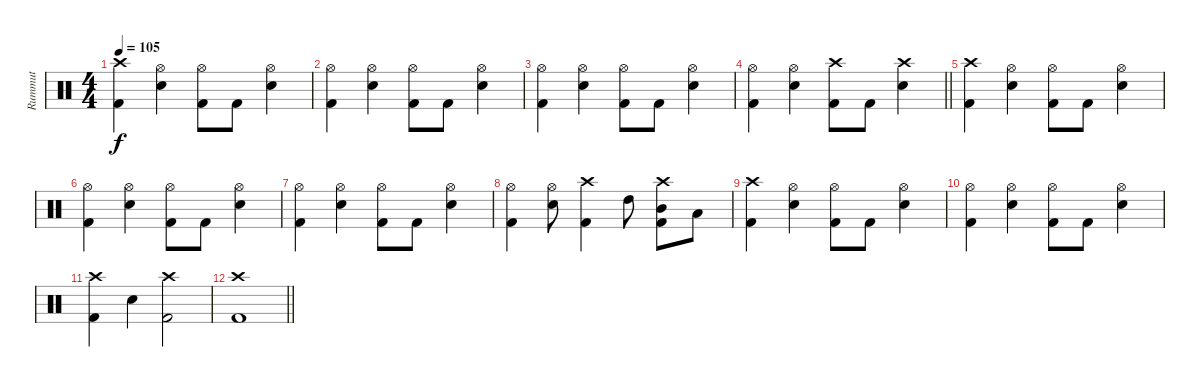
\track ("Rummut" "Rummut") {instrument percussion}
\staff {score}
\articulation defaults
\ts (4 4)
\tempo 105
\clef neutral
\ks c
("Crash high (hit)" "Kick (hit) 2").4{dy f} ("Hi-Hat (open)" "Snare (hit) 2").4 ("Hi-Hat (open)" "Kick (hit) 2").8 "Kick (hit) 2".8 ("Hi-Hat (open)" "Snare (hit) 2").4 |
("Hi-Hat (open)" "Kick (hit) 2").4 ("Hi-Hat (open)" "Snare (hit) 2").4 ("Hi-Hat (open)" "Kick (hit) 2").8 "Kick (hit) 2".8 ("Hi-Hat (open)" "Snare (hit) 2").4 |
("Hi-Hat (open)" "Kick (hit) 2").4 ("Hi-Hat (open)" "Snare (hit) 2").4 ("Hi-Hat (open)" "Kick (hit) 2").8 "Kick (hit) 2".8 ("Hi-Hat (open)" "Snare (hit) 2").4 |
\barLineRight lightlight
("Hi-Hat (open)" "Kick (hit) 2").4 ("Hi-Hat (open)" "Snare (hit) 2").4 ("Crash high (hit)" "Kick (hit) 2").8 "Kick (hit) 2".8 ("Crash high (hit)" "Snare (hit) 2").4 |
("Crash high (hit)" "Kick (hit) 2").4 ("Hi-Hat (open)" "Snare (hit) 2").4 ("Hi-Hat (open)" "Kick (hit) 2").8 "Kick (hit) 2".8 ("Hi-Hat (open)" "Snare (hit) 2").4 |
("Hi-Hat (open)" "Kick (hit) 2").4 ("Hi-Hat (open)" "Snare (hit) 2").4 ("Hi-Hat (open)" "Kick (hit) 2").8 "Kick (hit) 2".8 ("Hi-Hat (open)" "Snare (hit) 2").4 |
("Hi-Hat (open)" "Kick (hit) 2").4 ("Hi-Hat (open)" "Snare (hit) 2").4 ("Hi-Hat (open)" "Kick (hit) 2").8 "Kick (hit) 2".8 ("Hi-Hat (open)" "Snare (hit) 2").4 |
("Hi-Hat (open)" "Kick (hit) 2").4 ("Hi-Hat (open)" "Snare (hit) 2").8 ("Crash high (hit)" "Kick (hit) 2").4 "High Tom (hit)".8 ("Crash high (hit)" "Mid Tom (hit)" "Kick (hit) 2").8 "Low Tom (hit)".8 |
("Crash high (hit)" "Kick (hit) 2").4 ("Hi-Hat (open)" "Snare (hit) 2").4 ("Hi-Hat (open)" "Kick (hit) 2").8 "Kick (hit) 2".8 ("Hi-Hat (open)" "Snare (hit) 2").4 |
("Hi-Hat (open)" "Kick (hit) 2").4 ("Hi-Hat (open)" "Snare (hit) 2").4 ("Hi-Hat (open)" "Kick (hit) 2").8 "Kick (hit) 2".8 ("Hi-Hat (open)" "Snare (hit) 2").4 |
("Crash high (hit)" "Kick (hit) 2").4 "Snare (hit) 2".4 ("Crash high (hit)" "Kick (hit) 2").2 |
\barLineRight lightlight
("Crash high (hit)" "Kick (hit) 2").1
